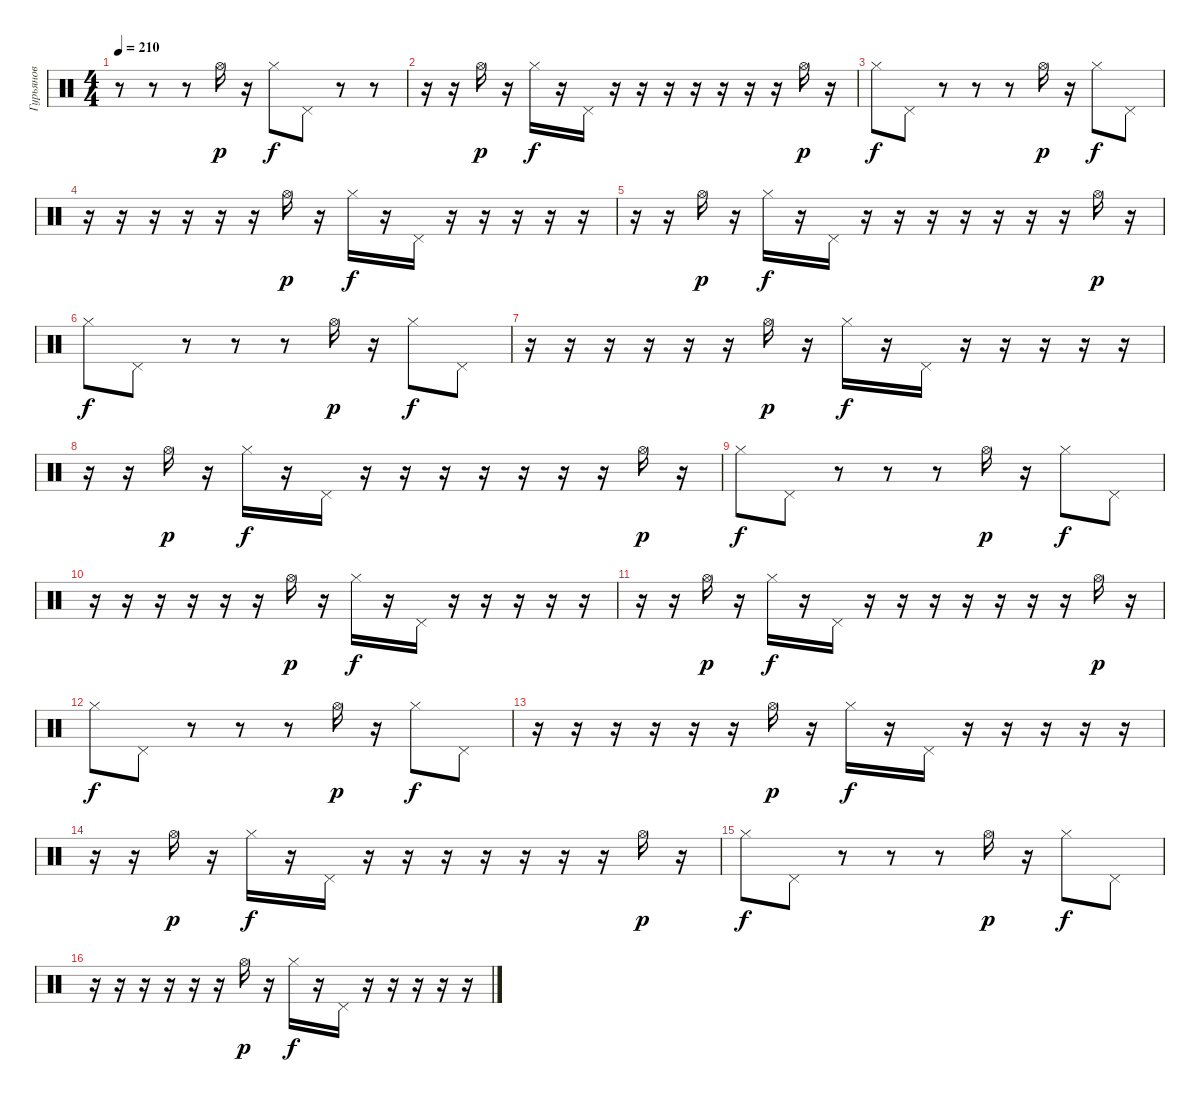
\track ("Гурьянов" "Гурьянов") {instrument percussion}
\staff {score}
\articulation defaults
\ts (4 4)
\tempo 210
\clef neutral
\ks c
r.8{dy f} r.8 r.8 "Hi-Hat (open)".16{dy p} r.16 "Hi-Hat (closed)".8{dy f} "Pedal Hi-Hat (hit)".8 r.8 r.8 |
r.16 r.16 "Hi-Hat (open)".16{dy p} r.16 "Hi-Hat (closed)".16{dy f} r.16 "Pedal Hi-Hat (hit)".16 r.16 r.16 r.16 r.16 r.16 r.16 r.16 "Hi-Hat (open)".16{dy p} r.16 |
"Hi-Hat (closed)".8{dy f} "Pedal Hi-Hat (hit)".8 r.8 r.8 r.8 "Hi-Hat (open)".16{dy p} r.16 "Hi-Hat (closed)".8{dy f} "Pedal Hi-Hat (hit)".8 |
r.16 r.16 r.16 r.16 r.16 r.16 "Hi-Hat (open)".16{dy p} r.16 "Hi-Hat (closed)".16{dy f} r.16 "Pedal Hi-Hat (hit)".16 r.16 r.16 r.16 r.16 r.16 |
r.16 r.16 "Hi-Hat (open)".16{dy p} r.16 "Hi-Hat (closed)".16{dy f} r.16 "Pedal Hi-Hat (hit)".16 r.16 r.16 r.16 r.16 r.16 r.16 r.16 "Hi-Hat (open)".16{dy p} r.16 |
"Hi-Hat (closed)".8{dy f} "Pedal Hi-Hat (hit)".8 r.8 r.8 r.8 "Hi-Hat (open)".16{dy p} r.16 "Hi-Hat (closed)".8{dy f} "Pedal Hi-Hat (hit)".8 |
r.16 r.16 r.16 r.16 r.16 r.16 "Hi-Hat (open)".16{dy p} r.16 "Hi-Hat (closed)".16{dy f} r.16 "Pedal Hi-Hat (hit)".16 r.16 r.16 r.16 r.16 r.16 |
r.16 r.16 "Hi-Hat (open)".16{dy p} r.16 "Hi-Hat (closed)".16{dy f} r.16 "Pedal Hi-Hat (hit)".16 r.16 r.16 r.16 r.16 r.16 r.16 r.16 "Hi-Hat (open)".16{dy p} r.16 |
"Hi-Hat (closed)".8{dy f} "Pedal Hi-Hat (hit)".8 r.8 r.8 r.8 "Hi-Hat (open)".16{dy p} r.16 "Hi-Hat (closed)".8{dy f} "Pedal Hi-Hat (hit)".8 |
r.16 r.16 r.16 r.16 r.16 r.16 "Hi-Hat (open)".16{dy p} r.16 "Hi-Hat (closed)".16{dy f} r.16 "Pedal Hi-Hat (hit)".16 r.16 r.16 r.16 r.16 r.16 |
r.16 r.16 "Hi-Hat (open)".16{dy p} r.16 "Hi-Hat (closed)".16{dy f} r.16 "Pedal Hi-Hat (hit)".16 r.16 r.16 r.16 r.16 r.16 r.16 r.16 "Hi-Hat (open)".16{dy p} r.16 |
"Hi-Hat (closed)".8{dy f} "Pedal Hi-Hat (hit)".8 r.8 r.8 r.8 "Hi-Hat (open)".16{dy p} r.16 "Hi-Hat (closed)".8{dy f} "Pedal Hi-Hat (hit)".8 |
r.16 r.16 r.16 r.16 r.16 r.16 "Hi-Hat (open)".16{dy p} r.16 "Hi-Hat (closed)".16{dy f} r.16 "Pedal Hi-Hat (hit)".16 r.16 r.16 r.16 r.16 r.16 |
r.16 r.16 "Hi-Hat (open)".16{dy p} r.16 "Hi-Hat (closed)".16{dy f} r.16 "Pedal Hi-Hat (hit)".16 r.16 r.16 r.16 r.16 r.16 r.16 r.16 "Hi-Hat (open)".16{dy p} r.16 |
"Hi-Hat (closed)".8{dy f} "Pedal Hi-Hat (hit)".8 r.8 r.8 r.8 "Hi-Hat (open)".16{dy p} r.16 "Hi-Hat (closed)".8{dy f} "Pedal Hi-Hat (hit)".8 |
r.16 r.16 r.16 r.16 r.16 r.16 "Hi-Hat (open)".16{dy p} r.16 "Hi-Hat (closed)".16{dy f} r.16 "Pedal Hi-Hat (hit)".16 r.16 r.16 r.16 r.16 r.16
